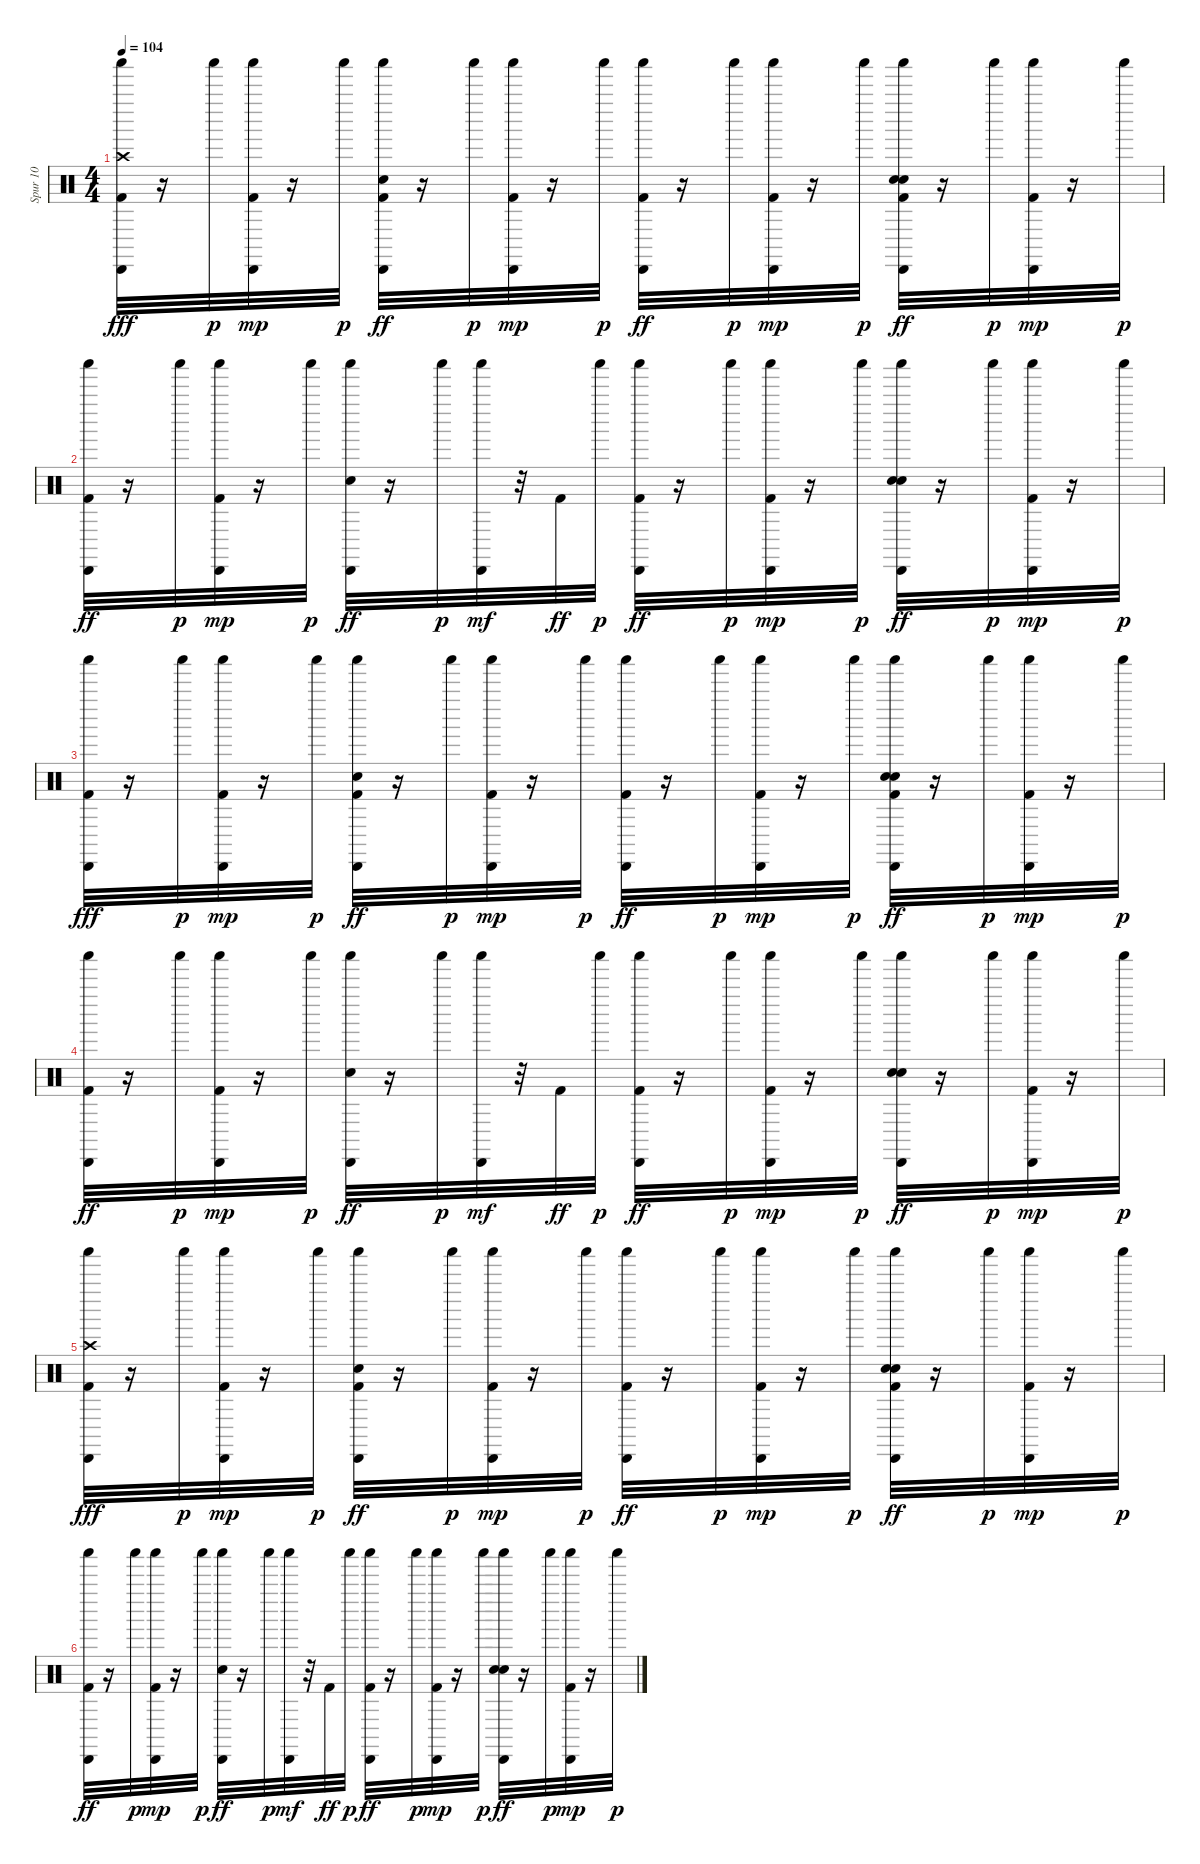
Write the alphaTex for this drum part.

\track ("Spur 10" "Spur 10") {instrument percussion}
\staff {score}
\articulation defaults
\ts (4 4)
\tempo 104
\clef neutral
\ks c
("Crash high (hit)" "Kick (hit) 2" "Cabasa (hit)" "Shaker (hit)").32{dy fff} r.16 "Shaker (hit)".32{dy p} ("Kick (hit) 2" "Cabasa (hit)" "Shaker (hit)").32{dy mp} r.16 "Shaker (hit)".32{dy p} ("Kick (hit) 2" "Snare (hit) 2" "Cabasa (hit)" "Shaker (hit)").32{dy ff} r.16 "Shaker (hit)".32{dy p} ("Kick (hit) 2" "Cabasa (hit)" "Shaker (hit)").32{dy mp} r.16 "Shaker (hit)".32{dy p} ("Kick (hit) 2" "Cabasa (hit)" "Shaker (hit)").32{dy ff} r.16 "Shaker (hit)".32{dy p} ("Kick (hit) 2" "Cabasa (hit)" "Shaker (hit)").32{dy mp} r.16 "Shaker (hit)".32{dy p} ("Kick (hit) 2" "Snare (hit) 2" "Hand Clap (hit)" "Cabasa (hit)" "Shaker (hit)").32{dy ff} r.16 "Shaker (hit)".32{dy p} ("Kick (hit) 2" "Cabasa (hit)" "Shaker (hit)").32{dy mp} r.16 "Shaker (hit)".32{dy p} |
("Kick (hit) 2" "Cabasa (hit)" "Shaker (hit)").32{dy ff} r.16 "Shaker (hit)".32{dy p} ("Kick (hit) 2" "Cabasa (hit)" "Shaker (hit)").32{dy mp} r.16 "Shaker (hit)".32{dy p} ("Snare (hit) 2" "Cabasa (hit)" "Shaker (hit)").32{dy ff} r.16 "Shaker (hit)".32{dy p} ("Cabasa (hit)" "Shaker (hit)").32{dy mf} r.32 "Kick (hit) 2".32{dy ff} "Shaker (hit)".32{dy p} ("Kick (hit) 2" "Cabasa (hit)" "Shaker (hit)").32{dy ff} r.16 "Shaker (hit)".32{dy p} ("Kick (hit) 2" "Cabasa (hit)" "Shaker (hit)").32{dy mp} r.16 "Shaker (hit)".32{dy p} ("Snare (hit) 2" "Hand Clap (hit)" "Cabasa (hit)" "Shaker (hit)").32{dy ff} r.16 "Shaker (hit)".32{dy p} ("Kick (hit) 2" "Cabasa (hit)" "Shaker (hit)").32{dy mp} r.16 "Shaker (hit)".32{dy p} |
("Kick (hit) 2" "Cabasa (hit)" "Shaker (hit)").32{dy fff} r.16 "Shaker (hit)".32{dy p} ("Kick (hit) 2" "Cabasa (hit)" "Shaker (hit)").32{dy mp} r.16 "Shaker (hit)".32{dy p} ("Kick (hit) 2" "Snare (hit) 2" "Cabasa (hit)" "Shaker (hit)").32{dy ff} r.16 "Shaker (hit)".32{dy p} ("Kick (hit) 2" "Cabasa (hit)" "Shaker (hit)").32{dy mp} r.16 "Shaker (hit)".32{dy p} ("Kick (hit) 2" "Cabasa (hit)" "Shaker (hit)").32{dy ff} r.16 "Shaker (hit)".32{dy p} ("Kick (hit) 2" "Cabasa (hit)" "Shaker (hit)").32{dy mp} r.16 "Shaker (hit)".32{dy p} ("Kick (hit) 2" "Snare (hit) 2" "Hand Clap (hit)" "Cabasa (hit)" "Shaker (hit)").32{dy ff} r.16 "Shaker (hit)".32{dy p} ("Kick (hit) 2" "Cabasa (hit)" "Shaker (hit)").32{dy mp} r.16 "Shaker (hit)".32{dy p} |
("Kick (hit) 2" "Cabasa (hit)" "Shaker (hit)").32{dy ff} r.16 "Shaker (hit)".32{dy p} ("Kick (hit) 2" "Cabasa (hit)" "Shaker (hit)").32{dy mp} r.16 "Shaker (hit)".32{dy p} ("Snare (hit) 2" "Cabasa (hit)" "Shaker (hit)").32{dy ff} r.16 "Shaker (hit)".32{dy p} ("Cabasa (hit)" "Shaker (hit)").32{dy mf} r.32 "Kick (hit) 2".32{dy ff} "Shaker (hit)".32{dy p} ("Kick (hit) 2" "Cabasa (hit)" "Shaker (hit)").32{dy ff} r.16 "Shaker (hit)".32{dy p} ("Kick (hit) 2" "Cabasa (hit)" "Shaker (hit)").32{dy mp} r.16 "Shaker (hit)".32{dy p} ("Snare (hit) 2" "Hand Clap (hit)" "Cabasa (hit)" "Shaker (hit)").32{dy ff} r.16 "Shaker (hit)".32{dy p} ("Kick (hit) 2" "Cabasa (hit)" "Shaker (hit)").32{dy mp} r.16 "Shaker (hit)".32{dy p} |
("Crash high (hit)" "Kick (hit) 2" "Cabasa (hit)" "Shaker (hit)").32{dy fff} r.16 "Shaker (hit)".32{dy p} ("Kick (hit) 2" "Cabasa (hit)" "Shaker (hit)").32{dy mp} r.16 "Shaker (hit)".32{dy p} ("Kick (hit) 2" "Snare (hit) 2" "Cabasa (hit)" "Shaker (hit)").32{dy ff} r.16 "Shaker (hit)".32{dy p} ("Kick (hit) 2" "Cabasa (hit)" "Shaker (hit)").32{dy mp} r.16 "Shaker (hit)".32{dy p} ("Kick (hit) 2" "Cabasa (hit)" "Shaker (hit)").32{dy ff} r.16 "Shaker (hit)".32{dy p} ("Kick (hit) 2" "Cabasa (hit)" "Shaker (hit)").32{dy mp} r.16 "Shaker (hit)".32{dy p} ("Kick (hit) 2" "Snare (hit) 2" "Hand Clap (hit)" "Cabasa (hit)" "Shaker (hit)").32{dy ff} r.16 "Shaker (hit)".32{dy p} ("Kick (hit) 2" "Cabasa (hit)" "Shaker (hit)").32{dy mp} r.16 "Shaker (hit)".32{dy p} |
("Kick (hit) 2" "Cabasa (hit)" "Shaker (hit)").32{dy ff} r.16 "Shaker (hit)".32{dy p} ("Kick (hit) 2" "Cabasa (hit)" "Shaker (hit)").32{dy mp} r.16 "Shaker (hit)".32{dy p} ("Snare (hit) 2" "Cabasa (hit)" "Shaker (hit)").32{dy ff} r.16 "Shaker (hit)".32{dy p} ("Cabasa (hit)" "Shaker (hit)").32{dy mf} r.32 "Kick (hit) 2".32{dy ff} "Shaker (hit)".32{dy p} ("Kick (hit) 2" "Cabasa (hit)" "Shaker (hit)").32{dy ff} r.16 "Shaker (hit)".32{dy p} ("Kick (hit) 2" "Cabasa (hit)" "Shaker (hit)").32{dy mp} r.16 "Shaker (hit)".32{dy p} ("Snare (hit) 2" "Hand Clap (hit)" "Cabasa (hit)" "Shaker (hit)").32{dy ff} r.16 "Shaker (hit)".32{dy p} ("Kick (hit) 2" "Cabasa (hit)" "Shaker (hit)").32{dy mp} r.16 "Shaker (hit)".32{dy p}
